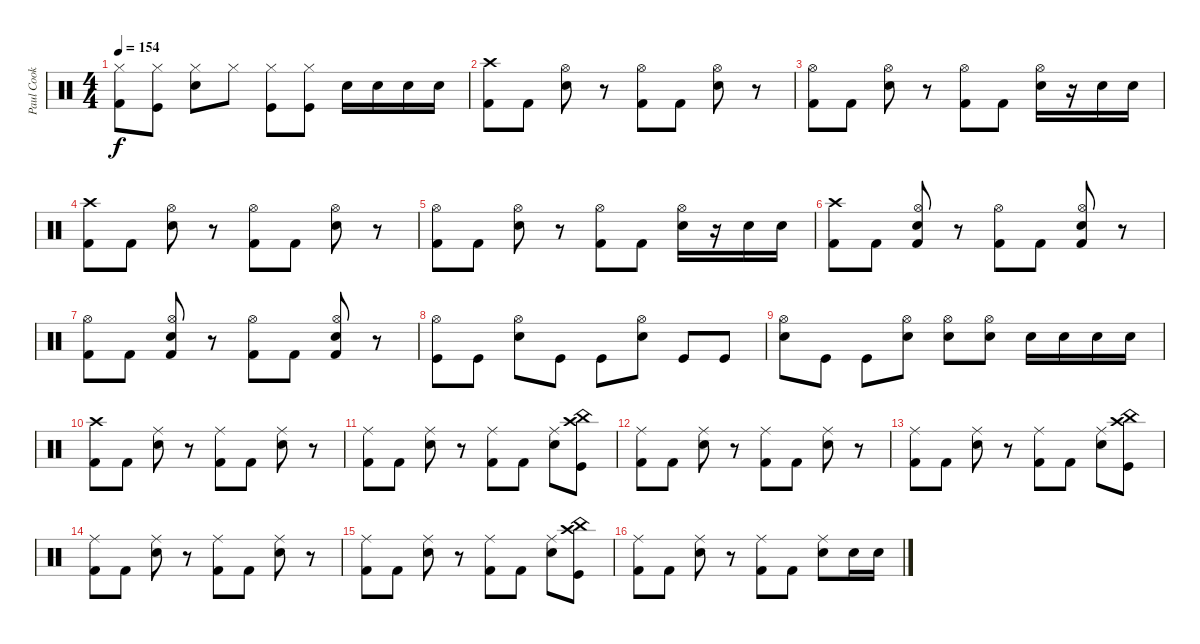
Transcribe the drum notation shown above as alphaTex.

\track ("Paul Cook" "Paul Cook") {instrument percussion}
\staff {score}
\articulation defaults
\ts (4 4)
\tempo 154
\clef neutral
\ks c
("Hi-Hat (closed)" "Kick (hit) 2").8{dy f} ("Kick (hit)" "Hi-Hat (closed)").8 ("Hi-Hat (closed)" "Snare (hit) 2").8 "Hi-Hat (closed)".8 ("Kick (hit)" "Hi-Hat (closed)").8 ("Kick (hit)" "Hi-Hat (closed)").8 "Snare (hit) 2".16 "Snare (hit) 2".16 "Snare (hit) 2".16 "Snare (hit) 2".16 |
("Crash high (hit)" "Kick (hit) 2").8 "Kick (hit) 2".8 ("Hi-Hat (open)" "Electric Snare (hit)").8 r.8 ("Hi-Hat (open)" "Kick (hit) 2").8 "Kick (hit) 2".8 ("Hi-Hat (open)" "Electric Snare (hit)").8 r.8 |
("Hi-Hat (open)" "Kick (hit) 2").8 "Kick (hit) 2".8 ("Hi-Hat (open)" "Electric Snare (hit)").8 r.8 ("Hi-Hat (open)" "Kick (hit) 2").8 "Kick (hit) 2".8 ("Hi-Hat (open)" "Electric Snare (hit)").16 r.16 "Snare (hit) 2".16 "Snare (hit) 2".16 |
("Crash high (hit)" "Kick (hit) 2").8 "Kick (hit) 2".8 ("Hi-Hat (open)" "Electric Snare (hit)").8 r.8 ("Hi-Hat (open)" "Kick (hit) 2").8 "Kick (hit) 2".8 ("Hi-Hat (open)" "Electric Snare (hit)").8 r.8 |
("Hi-Hat (open)" "Kick (hit) 2").8 "Kick (hit) 2".8 ("Hi-Hat (open)" "Electric Snare (hit)").8 r.8 ("Hi-Hat (open)" "Kick (hit) 2").8 "Kick (hit) 2".8 ("Hi-Hat (open)" "Electric Snare (hit)").16 r.16 "Snare (hit) 2".16 "Snare (hit) 2".16 |
("Crash high (hit)" "Kick (hit) 2").8 "Kick (hit) 2".8 ("Hi-Hat (open)" "Electric Snare (hit)" "Kick (hit) 2").8 r.8 ("Hi-Hat (open)" "Kick (hit) 2").8 "Kick (hit) 2".8 ("Hi-Hat (open)" "Electric Snare (hit)" "Kick (hit) 2").8 r.8 |
("Hi-Hat (open)" "Kick (hit) 2").8 "Kick (hit) 2".8 ("Hi-Hat (open)" "Electric Snare (hit)" "Kick (hit) 2").8 r.8 ("Hi-Hat (open)" "Kick (hit) 2").8 "Kick (hit) 2".8 ("Hi-Hat (open)" "Electric Snare (hit)" "Kick (hit) 2").8 r.8 |
("Hi-Hat (open)" "Kick (hit)").8 "Kick (hit)".8 ("Hi-Hat (open)" "Snare (hit) 2").8 "Kick (hit)".8 "Kick (hit)".8 ("Hi-Hat (open)" "Snare (hit) 2").8 "Kick (hit)".8 "Kick (hit)".8 |
("Snare (hit) 2" "Hi-Hat (open)").8 "Kick (hit)".8 "Kick (hit)".8 ("Hi-Hat (open)" "Snare (hit) 2").8 ("Snare (hit) 2" "Hi-Hat (open)").8 ("Snare (hit) 2" "Hi-Hat (open)").8 "Snare (hit) 2".16 "Snare (hit) 2".16 "Snare (hit) 2".16 "Snare (hit) 2".16 |
("Crash high (hit)" "Kick (hit) 2").8 "Kick (hit) 2".8 ("Ride (middle)" "Electric Snare (hit)").8 r.8 ("Ride (middle)" "Kick (hit) 2").8 "Kick (hit) 2".8 ("Ride (middle)" "Electric Snare (hit)").8 r.8 |
("Ride (middle)" "Kick (hit) 2").8 "Kick (hit) 2".8 ("Ride (middle)" "Electric Snare (hit)").8 r.8 ("Ride (middle)" "Kick (hit) 2").8 "Kick (hit) 2".8 ("Ride (middle)" "Electric Snare (hit)").8 ("Kick (hit)" "Crash high (hit)" "China (hit)").8 |
("Ride (middle)" "Kick (hit) 2").8 "Kick (hit) 2".8 ("Ride (middle)" "Electric Snare (hit)").8 r.8 ("Ride (middle)" "Kick (hit) 2").8 "Kick (hit) 2".8 ("Ride (middle)" "Electric Snare (hit)").8 r.8 |
("Ride (middle)" "Kick (hit) 2").8 "Kick (hit) 2".8 ("Ride (middle)" "Electric Snare (hit)").8 r.8 ("Ride (middle)" "Kick (hit) 2").8 "Kick (hit) 2".8 ("Ride (middle)" "Electric Snare (hit)").8 ("Kick (hit)" "Crash high (hit)" "China (hit)").8 |
("Ride (middle)" "Kick (hit) 2").8 "Kick (hit) 2".8 ("Ride (middle)" "Electric Snare (hit)").8 r.8 ("Ride (middle)" "Kick (hit) 2").8 "Kick (hit) 2".8 ("Ride (middle)" "Electric Snare (hit)").8 r.8 |
("Ride (middle)" "Kick (hit) 2").8 "Kick (hit) 2".8 ("Ride (middle)" "Electric Snare (hit)").8 r.8 ("Ride (middle)" "Kick (hit) 2").8 "Kick (hit) 2".8 ("Ride (middle)" "Electric Snare (hit)").8 ("Kick (hit)" "Crash high (hit)" "China (hit)").8 |
("Ride (middle)" "Kick (hit) 2").8 "Kick (hit) 2".8 ("Ride (middle)" "Electric Snare (hit)").8 r.8 ("Ride (middle)" "Kick (hit) 2").8 "Kick (hit) 2".8 ("Ride (middle)" "Electric Snare (hit)").8 "Snare (hit) 2".16 "Snare (hit) 2".16
